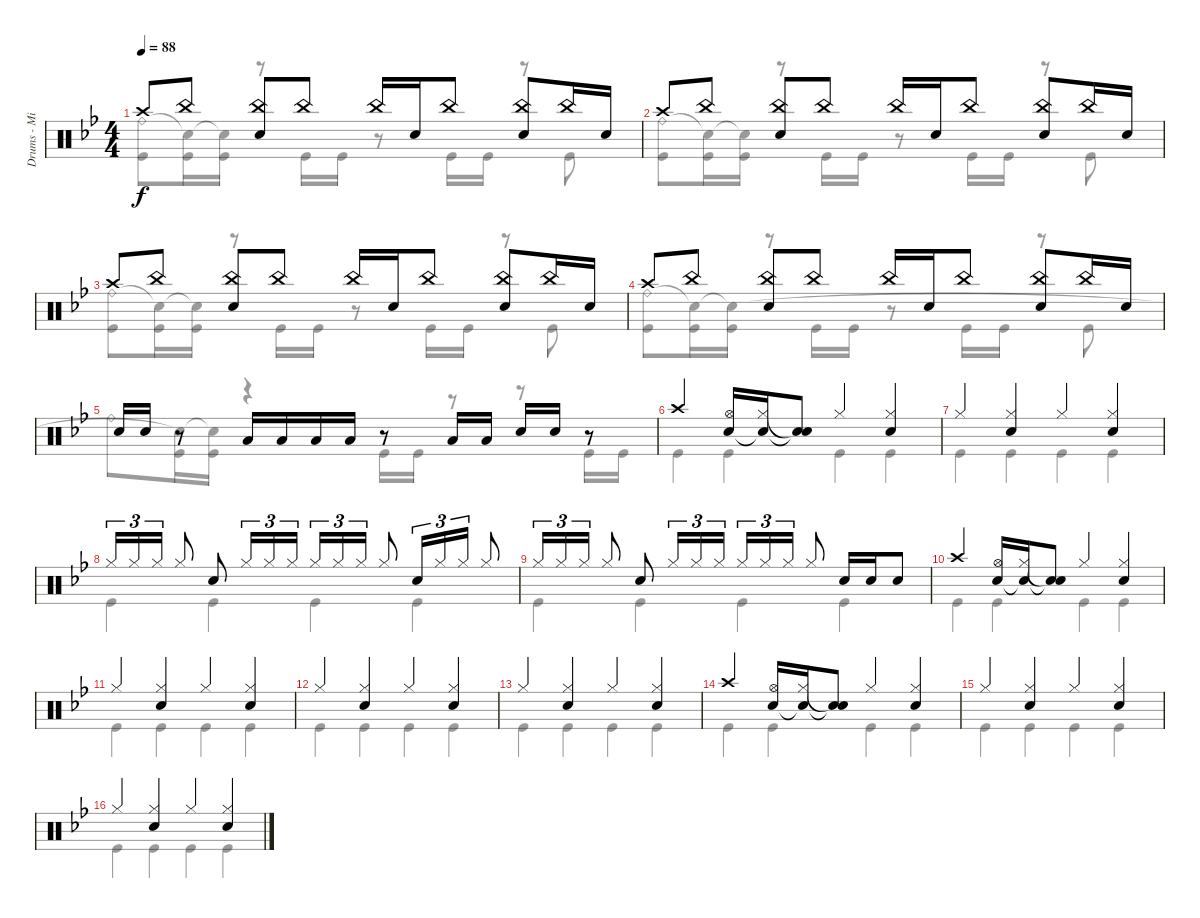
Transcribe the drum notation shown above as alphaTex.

\track ("Drums - Mike Portnoy" "Drums - Mi") {instrument percussion}
\staff {score}
\articulation defaults
\voice
\ts (4 4)
\tempo 88
\clef neutral
\ks bb "Crash high (hit)".8{dy f} "China (hit)".8
("China (hit)" "Snare (hit) 2").8 "China (hit)".8 "China (hit)".16 "Snare (hit) 2".16 "China (hit)".8 ("China (hit)" "Snare (hit) 2").8 "China (hit)".16 "Snare (hit) 2".16 |
"Crash high (hit)".8 "China (hit)".8 ("China (hit)" "Snare (hit) 2").8 "China (hit)".8 "China (hit)".16 "Snare (hit) 2".16 "China (hit)".8 ("China (hit)" "Snare (hit) 2").8 "China (hit)".16 "Snare (hit) 2".16 |
"Crash high (hit)".8 "China (hit)".8 ("China (hit)" "Snare (hit) 2").8 "China (hit)".8 "China (hit)".16 "Snare (hit) 2".16 "China (hit)".8 ("China (hit)" "Snare (hit) 2").8 "China (hit)".16 "Snare (hit) 2".16 |
"Crash high (hit)".8 "China (hit)".8 ("China (hit)" "Snare (hit) 2").8 "China (hit)".8 "China (hit)".16 "Snare (hit) 2".16 "China (hit)".8 ("China (hit)" "Snare (hit) 2").8 "China (hit)".16 "Snare (hit) 2".16 |
"Snare (hit) 2".16 "Snare (hit) 2".16 r.8 "Low Tom (hit)".16 "Low Tom (hit)".16 "Low Tom (hit)".16 "Low Tom (hit)".16 r.8 "Low Tom (hit)".16 "Low Tom (hit)".16 "Snare (hit) 2".16 "Snare (hit) 2".16 r.8 |
"Crash high (hit)".4 ("Hi-Hat (open)" "Snare (hit) 2").16 ("Hi-Hat (closed)" "Snare (hit)"{t}).16 ("Snare (hit)"{t} "Snare (hit)"{t}).8 "Hi-Hat (closed)".4 ("Hi-Hat (closed)" "Snare (hit) 2").4 |
"Hi-Hat (closed)".4 ("Hi-Hat (closed)" "Snare (hit) 2").4 "Hi-Hat (closed)".4 ("Hi-Hat (closed)" "Snare (hit) 2").4 |
"Hi-Hat (closed)".16{tu (3 2)} "Hi-Hat (closed)".16{tu (3 2)} "Hi-Hat (closed)".16{tu (3 2)} "Hi-Hat (closed)".8 "Snare (hit) 2".8 "Hi-Hat (closed)".16{tu (3 2)} "Hi-Hat (closed)".16{tu (3 2)} "Hi-Hat (closed)".16{tu (3 2)} "Hi-Hat (closed)".16{tu (3 2)} "Hi-Hat (closed)".16{tu (3 2)} "Hi-Hat (closed)".16{tu (3 2)} "Hi-Hat (closed)".8 "Snare (hit) 2".16{tu (3 2)} "Hi-Hat (closed)".16{tu (3 2)} "Hi-Hat (closed)".16{tu (3 2)} "Hi-Hat (closed)".8 |
"Hi-Hat (closed)".16{tu (3 2)} "Hi-Hat (closed)".16{tu (3 2)} "Hi-Hat (closed)".16{tu (3 2)} "Hi-Hat (closed)".8 "Snare (hit) 2".8 "Hi-Hat (closed)".16{tu (3 2)} "Hi-Hat (closed)".16{tu (3 2)} "Hi-Hat (closed)".16{tu (3 2)} "Hi-Hat (closed)".16{tu (3 2)} "Hi-Hat (closed)".16{tu (3 2)} "Hi-Hat (closed)".16{tu (3 2)} "Hi-Hat (closed)".8 "Snare (hit) 2".16 "Snare (hit) 2".16 "Snare (hit) 2".8 |
"Crash high (hit)".4 ("Hi-Hat (open)" "Snare (hit) 2").16 ("Hi-Hat (closed)" "Snare (hit)"{t}).16 ("Snare (hit)"{t} "Snare (hit)"{t}).8 "Hi-Hat (closed)".4 ("Hi-Hat (closed)" "Snare (hit) 2").4 |
"Hi-Hat (closed)".4 ("Hi-Hat (closed)" "Snare (hit) 2").4 "Hi-Hat (closed)".4 ("Hi-Hat (closed)" "Snare (hit) 2").4 |
"Hi-Hat (closed)".4 ("Hi-Hat (closed)" "Snare (hit) 2").4 "Hi-Hat (closed)".4 ("Hi-Hat (closed)" "Snare (hit) 2").4 |
"Hi-Hat (closed)".4 ("Hi-Hat (closed)" "Snare (hit) 2").4 "Hi-Hat (closed)".4 ("Hi-Hat (closed)" "Snare (hit) 2").4 |
"Crash high (hit)".4 ("Hi-Hat (open)" "Snare (hit) 2").16 ("Hi-Hat (closed)" "Snare (hit)"{t}).16 ("Snare (hit)"{t} "Snare (hit)"{t}).8 "Hi-Hat (closed)".4 ("Hi-Hat (closed)" "Snare (hit) 2").4 |
"Hi-Hat (closed)".4 ("Hi-Hat (closed)" "Snare (hit) 2").4 "Hi-Hat (closed)".4 ("Hi-Hat (closed)" "Snare (hit) 2").4 |
"Hi-Hat (closed)".4 ("Hi-Hat (closed)" "Snare (hit) 2").4 "Hi-Hat (closed)".4 ("Hi-Hat (closed)" "Snare (hit) 2").4
\voice
\clef neutral
\ottava regular
\simile none
\ks bb
("Kick (hit)" "Ride (bell)").8{dy f} ("Kick (hit)" "Snare (hit)"{t}).16 ("Kick (hit)" "Snare (hit)"{t}).16 r.8 "Kick (hit)".16 "Kick (hit)".16 r.8 "Kick (hit)".16 "Kick (hit)".16 r.8 "Kick (hit)".8 |
("Kick (hit)" "Ride (bell)").8 ("Kick (hit)" "Snare (hit)"{t}).16 ("Kick (hit)" "Snare (hit)"{t}).16 r.8 "Kick (hit)".16 "Kick (hit)".16 r.8 "Kick (hit)".16 "Kick (hit)".16 r.8 "Kick (hit)".8 |
("Kick (hit)" "Ride (bell)").8 ("Kick (hit)" "Snare (hit)"{t}).16 ("Kick (hit)" "Snare (hit)"{t}).16 r.8 "Kick (hit)".16 "Kick (hit)".16 r.8 "Kick (hit)".16 "Kick (hit)".16 r.8 "Kick (hit)".8 |
("Kick (hit)" "Ride (bell)").8 ("Kick (hit)" "Snare (hit)"{t}).16 ("Kick (hit)" "Snare (hit)"{t}).16 r.8 "Kick (hit)".16 "Kick (hit)".16 r.8 "Kick (hit)".16 "Kick (hit)".16 r.8 "Kick (hit)".8 |
"Ride (bell)".8 ("Kick (hit)" "Snare (hit)"{t}).16 ("Kick (hit)" "Snare (hit)"{t}).16 r.4 "Kick (hit)".16 "Kick (hit)".16 r.8 r.8 "Kick (hit)".16 "Kick (hit)".16 |
"Kick (hit)".4 "Kick (hit)".4 "Kick (hit)".4 "Kick (hit)".4 |
"Kick (hit)".4 "Kick (hit)".4 "Kick (hit)".4 "Kick (hit)".4 |
"Kick (hit)".4 "Kick (hit)".4 "Kick (hit)".4 "Kick (hit)".4 |
"Kick (hit)".4 "Kick (hit)".4 "Kick (hit)".4 "Kick (hit)".4 |
"Kick (hit)".4 "Kick (hit)".4 "Kick (hit)".4 "Kick (hit)".4 |
"Kick (hit)".4 "Kick (hit)".4 "Kick (hit)".4 "Kick (hit)".4 |
"Kick (hit)".4 "Kick (hit)".4 "Kick (hit)".4 "Kick (hit)".4 |
"Kick (hit)".4 "Kick (hit)".4 "Kick (hit)".4 "Kick (hit)".4 |
"Kick (hit)".4 "Kick (hit)".4 "Kick (hit)".4 "Kick (hit)".4 |
"Kick (hit)".4 "Kick (hit)".4 "Kick (hit)".4 "Kick (hit)".4 |
"Kick (hit)".4 "Kick (hit)".4 "Kick (hit)".4 "Kick (hit)".4
